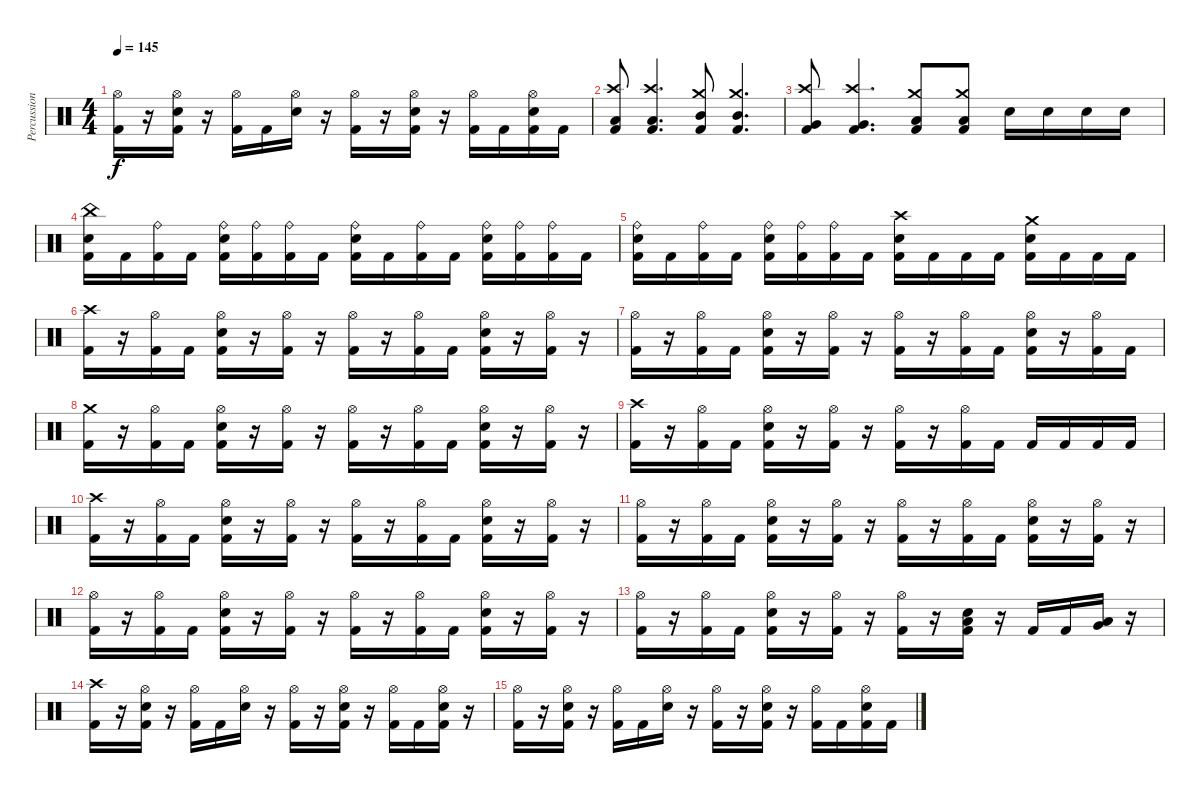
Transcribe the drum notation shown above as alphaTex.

\track ("Percussion" "Percussion") {instrument percussion}
\staff {score}
\articulation defaults
\ts (4 4)
\tempo 145
\clef neutral
\ks c
("Hi-Hat (open)" "Kick (hit) 2").16{dy f} r.16 ("Hi-Hat (open)" "Snare (hit) 2" "Kick (hit) 2").16 r.16 ("Hi-Hat (open)" "Kick (hit) 2").16 "Kick (hit) 2".16 ("Hi-Hat (open)" "Snare (hit) 2").16 r.16 ("Hi-Hat (open)" "Kick (hit) 2").16 r.16 ("Hi-Hat (open)" "Snare (hit) 2" "Kick (hit) 2").16 r.16 ("Hi-Hat (open)" "Kick (hit) 2").16 "Kick (hit) 2".16 ("Hi-Hat (open)" "Snare (hit) 2" "Kick (hit) 2").16 "Kick (hit) 2".16 |
("Crash high (hit)" "Low Floor Tom (hit)" "Kick (hit) 2").8 ("Crash high (hit)" "Low Floor Tom (hit)" "Kick (hit) 2").4{d} ("Crash medium (hit)" "Mid Tom (hit)" "Kick (hit) 2").8 ("Crash medium (hit)" "Mid Tom (hit)" "Kick (hit) 2").4{d} |
("Crash high (hit)" "Very Low Tom (hit)" "Kick (hit) 2").8 ("Crash high (hit)" "Very Low Tom (hit)" "Kick (hit) 2").4{d} ("Crash medium (hit)" "Low Tom (hit)" "Kick (hit) 2").8 ("Crash medium (hit)" "Low Tom (hit)" "Kick (hit) 2").8 "Snare (hit) 2".16 "Snare (hit) 2".16 "Snare (hit) 2".16 "Snare (hit) 2".16 |
("China (hit)" "Snare (hit) 2" "Kick (hit) 2").16 "Kick (hit) 2".16 ("Ride (bell)" "Kick (hit) 2").16 "Kick (hit) 2".16 ("Ride (bell)" "Snare (hit) 2" "Kick (hit) 2").16 ("Ride (bell)" "Kick (hit) 2").16 ("Ride (bell)" "Kick (hit) 2").16 "Kick (hit) 2".16 ("Ride (bell)" "Snare (hit) 2" "Kick (hit) 2").16 "Kick (hit) 2".16 ("Ride (bell)" "Kick (hit) 2").16 "Kick (hit) 2".16 ("Ride (bell)" "Snare (hit) 2" "Kick (hit) 2").16 ("Ride (bell)" "Kick (hit) 2").16 ("Ride (bell)" "Kick (hit) 2").16 "Kick (hit) 2".16 |
("Ride (bell)" "Snare (hit) 2" "Kick (hit) 2").16 "Kick (hit) 2".16 ("Ride (bell)" "Kick (hit) 2").16 "Kick (hit) 2".16 ("Ride (bell)" "Snare (hit) 2" "Kick (hit) 2").16 ("Ride (bell)" "Kick (hit) 2").16 ("Ride (bell)" "Kick (hit) 2").16 "Kick (hit) 2".16 ("Crash high (hit)" "Snare (hit) 2" "Kick (hit) 2").16 "Kick (hit) 2".16 "Kick (hit) 2".16 "Kick (hit) 2".16 ("Crash medium (hit)" "Snare (hit) 2" "Kick (hit) 2").16 "Kick (hit) 2".16 "Kick (hit) 2".16 "Kick (hit) 2".16 |
("Crash high (hit)" "Kick (hit) 2").16 r.16 ("Hi-Hat (open)" "Kick (hit) 2").16 "Kick (hit) 2".16 ("Hi-Hat (open)" "Snare (hit) 2" "Kick (hit) 2").16 r.16 ("Hi-Hat (open)" "Kick (hit) 2").16 r.16 ("Hi-Hat (open)" "Kick (hit) 2").16 r.16 ("Hi-Hat (open)" "Kick (hit) 2").16 "Kick (hit) 2".16 ("Hi-Hat (open)" "Snare (hit) 2" "Kick (hit) 2").16 r.16 ("Hi-Hat (open)" "Kick (hit) 2").16 r.16 |
("Hi-Hat (open)" "Kick (hit) 2").16 r.16 ("Hi-Hat (open)" "Kick (hit) 2").16 "Kick (hit) 2".16 ("Hi-Hat (open)" "Snare (hit) 2" "Kick (hit) 2").16 r.16 ("Hi-Hat (open)" "Kick (hit) 2").16 r.16 ("Hi-Hat (open)" "Kick (hit) 2").16 r.16 ("Hi-Hat (open)" "Kick (hit) 2").16 "Kick (hit) 2".16 ("Hi-Hat (open)" "Snare (hit) 2" "Kick (hit) 2").16 r.16 ("Hi-Hat (open)" "Kick (hit) 2").16 "Kick (hit) 2".16 |
("Crash medium (hit)" "Kick (hit) 2").16 r.16 ("Hi-Hat (open)" "Kick (hit) 2").16 "Kick (hit) 2".16 ("Hi-Hat (open)" "Snare (hit) 2" "Kick (hit) 2").16 r.16 ("Hi-Hat (open)" "Kick (hit) 2").16 r.16 ("Hi-Hat (open)" "Kick (hit) 2").16 r.16 ("Hi-Hat (open)" "Kick (hit) 2").16 "Kick (hit) 2".16 ("Hi-Hat (open)" "Snare (hit) 2" "Kick (hit) 2").16 r.16 ("Hi-Hat (open)" "Kick (hit) 2").16 r.16 |
("Crash high (hit)" "Kick (hit) 2").16 r.16 ("Hi-Hat (open)" "Kick (hit) 2").16 "Kick (hit) 2".16 ("Hi-Hat (open)" "Snare (hit) 2" "Kick (hit) 2").16 r.16 ("Hi-Hat (open)" "Kick (hit) 2").16 r.16 ("Hi-Hat (open)" "Kick (hit) 2").16 r.16 ("Hi-Hat (open)" "Kick (hit) 2").16 "Kick (hit) 2".16 "Kick (hit) 2".16 "Kick (hit) 2".16 "Kick (hit) 2".16 "Kick (hit) 2".16 |
("Crash high (hit)" "Kick (hit) 2").16 r.16 ("Hi-Hat (open)" "Kick (hit) 2").16 "Kick (hit) 2".16 ("Hi-Hat (open)" "Snare (hit) 2" "Kick (hit) 2").16 r.16 ("Hi-Hat (open)" "Kick (hit) 2").16 r.16 ("Hi-Hat (open)" "Kick (hit) 2").16 r.16 ("Hi-Hat (open)" "Kick (hit) 2").16 "Kick (hit) 2".16 ("Hi-Hat (open)" "Snare (hit) 2" "Kick (hit) 2").16 r.16 ("Hi-Hat (open)" "Kick (hit) 2").16 r.16 |
("Hi-Hat (open)" "Kick (hit) 2").16 r.16 ("Hi-Hat (open)" "Kick (hit) 2").16 "Kick (hit) 2".16 ("Hi-Hat (open)" "Snare (hit) 2" "Kick (hit) 2").16 r.16 ("Hi-Hat (open)" "Kick (hit) 2").16 r.16 ("Hi-Hat (open)" "Kick (hit) 2").16 r.16 ("Hi-Hat (open)" "Kick (hit) 2").16 "Kick (hit) 2".16 ("Hi-Hat (open)" "Snare (hit) 2" "Kick (hit) 2").16 r.16 ("Hi-Hat (open)" "Kick (hit) 2").16 r.16 |
("Hi-Hat (open)" "Kick (hit) 2").16{volume 0} r.16 ("Hi-Hat (open)" "Kick (hit) 2").16 "Kick (hit) 2".16 ("Hi-Hat (open)" "Snare (hit) 2" "Kick (hit) 2").16 r.16 ("Hi-Hat (open)" "Kick (hit) 2").16 r.16 ("Hi-Hat (open)" "Kick (hit) 2").16 r.16 ("Hi-Hat (open)" "Kick (hit) 2").16 "Kick (hit) 2".16 ("Hi-Hat (open)" "Snare (hit) 2" "Kick (hit) 2").16 r.16 ("Hi-Hat (open)" "Kick (hit) 2").16 r.16 |
("Hi-Hat (open)" "Kick (hit) 2").16 r.16 ("Hi-Hat (open)" "Kick (hit) 2").16 "Kick (hit) 2".16 ("Hi-Hat (open)" "Snare (hit) 2" "Kick (hit) 2").16 r.16 ("Hi-Hat (open)" "Kick (hit) 2").16 r.16 ("Hi-Hat (open)" "Kick (hit) 2").16 r.16 ("Low Tom (hit)" "Snare (hit) 2" "Kick (hit) 2").16 r.16 "Kick (hit) 2".16 "Kick (hit) 2".16 ("Low Floor Tom (hit)" "Very Low Tom (hit)").16 r.16 |
("Crash high (hit)" "Kick (hit) 2").16 r.16 ("Hi-Hat (open)" "Snare (hit) 2" "Kick (hit) 2").16 r.16 ("Hi-Hat (open)" "Kick (hit) 2").16 "Kick (hit) 2".16 ("Hi-Hat (open)" "Snare (hit) 2").16 r.16 ("Hi-Hat (open)" "Kick (hit) 2").16 r.16 ("Hi-Hat (open)" "Snare (hit) 2" "Kick (hit) 2").16 r.16 ("Hi-Hat (open)" "Kick (hit) 2").16 "Kick (hit) 2".16 ("Hi-Hat (open)" "Snare (hit) 2" "Kick (hit) 2").16 r.16 |
("Hi-Hat (open)" "Kick (hit) 2").16 r.16 ("Hi-Hat (open)" "Snare (hit) 2" "Kick (hit) 2").16 r.16 ("Hi-Hat (open)" "Kick (hit) 2").16 "Kick (hit) 2".16 ("Hi-Hat (open)" "Snare (hit) 2").16 r.16 ("Hi-Hat (open)" "Kick (hit) 2").16 r.16 ("Hi-Hat (open)" "Snare (hit) 2" "Kick (hit) 2").16 r.16 ("Hi-Hat (open)" "Kick (hit) 2").16 "Kick (hit) 2".16 ("Hi-Hat (open)" "Snare (hit) 2" "Kick (hit) 2").16 "Kick (hit) 2".16
